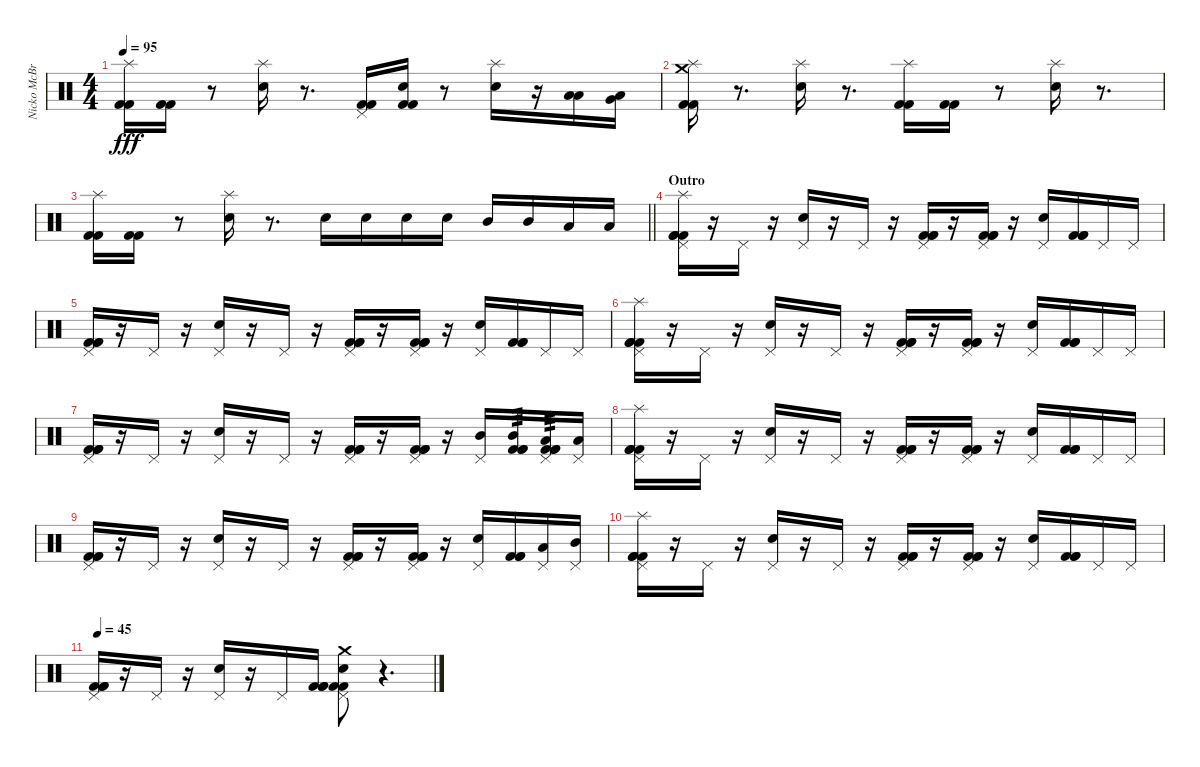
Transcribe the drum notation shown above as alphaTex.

\track ("Nicko McBrain" "Nicko McBr") {instrument percussion}
\staff {score}
\articulation defaults
\ts (4 4)
\tempo 95
\clef neutral
\ks c
("Splash (hit)" "Kick (hit) 2" "Kick (hit) 2").16{dy fff} ("Kick (hit) 2" "Kick (hit) 2").16 r.8 ("Snare (hit) 2" "Splash (hit)").16 r.8{d} ("Pedal Hi-Hat (hit)" "Kick (hit) 2" "Kick (hit) 2").16 ("Snare (hit) 2" "Kick (hit) 2" "Kick (hit) 2").16 r.8 ("Snare (hit) 2" "Splash (hit)").16 r.16 ("Low Tom (hit)" "Low Tom (hit)").16 ("Very Low Tom (hit)" "Low Tom (hit)").16 |
("Crash medium (hit)" "Splash (hit)" "Kick (hit) 2" "Kick (hit) 2").16 r.8{d} ("Snare (hit) 2" "Splash (hit)").16 r.8{d} ("Splash (hit)" "Kick (hit) 2" "Kick (hit) 2").16 ("Kick (hit) 2" "Kick (hit) 2").16 r.8 ("Snare (hit) 2" "Splash (hit)").16 r.8{d} |
\barLineRight lightlight
("Splash (hit)" "Kick (hit) 2" "Kick (hit) 2").16 ("Kick (hit) 2" "Kick (hit) 2").16 r.8 ("Snare (hit) 2" "Splash (hit)").16 r.8{d} "Snare (hit) 2".16 "Snare (hit) 2".16 "Snare (hit) 2".16 "Snare (hit) 2".16 "Mid Tom (hit)".16 "Mid Tom (hit)".16 "Low Tom (hit)".16 "Low Tom (hit)".16 |
\section ("" "Outro")
("Splash (hit)" "Pedal Hi-Hat (hit)" "Kick (hit) 2" "Kick (hit) 2" "Kick (hit) 2").16 r.16 "Pedal Hi-Hat (hit)".16 r.16 ("Snare (hit) 2" "Pedal Hi-Hat (hit)").16 r.16 "Pedal Hi-Hat (hit)".16 r.16 ("Pedal Hi-Hat (hit)" "Kick (hit) 2" "Kick (hit) 2" "Kick (hit) 2").16 r.16 ("Pedal Hi-Hat (hit)" "Kick (hit) 2" "Kick (hit) 2" "Kick (hit) 2").16 r.16 ("Snare (hit) 2" "Pedal Hi-Hat (hit)").16 ("Kick (hit) 2" "Kick (hit) 2" "Kick (hit) 2").16 "Pedal Hi-Hat (hit)".16 "Pedal Hi-Hat (hit)".16 |
("Pedal Hi-Hat (hit)" "Kick (hit) 2" "Kick (hit) 2" "Kick (hit) 2").16 r.16 "Pedal Hi-Hat (hit)".16 r.16 ("Snare (hit) 2" "Pedal Hi-Hat (hit)").16 r.16 "Pedal Hi-Hat (hit)".16 r.16 ("Pedal Hi-Hat (hit)" "Kick (hit) 2" "Kick (hit) 2" "Kick (hit) 2").16 r.16 ("Pedal Hi-Hat (hit)" "Kick (hit) 2" "Kick (hit) 2" "Kick (hit) 2").16 r.16 ("Snare (hit) 2" "Pedal Hi-Hat (hit)").16 ("Kick (hit) 2" "Kick (hit) 2" "Kick (hit) 2").16 "Pedal Hi-Hat (hit)".16 "Pedal Hi-Hat (hit)".16 |
("Splash (hit)" "Pedal Hi-Hat (hit)" "Kick (hit) 2" "Kick (hit) 2" "Kick (hit) 2").16 r.16 "Pedal Hi-Hat (hit)".16 r.16 ("Snare (hit) 2" "Pedal Hi-Hat (hit)").16 r.16 "Pedal Hi-Hat (hit)".16 r.16 ("Pedal Hi-Hat (hit)" "Kick (hit) 2" "Kick (hit) 2" "Kick (hit) 2").16 r.16 ("Pedal Hi-Hat (hit)" "Kick (hit) 2" "Kick (hit) 2" "Kick (hit) 2").16 r.16 ("Snare (hit) 2" "Pedal Hi-Hat (hit)").16 ("Kick (hit) 2" "Kick (hit) 2" "Kick (hit) 2").16 "Pedal Hi-Hat (hit)".16 "Pedal Hi-Hat (hit)".16 |
("Pedal Hi-Hat (hit)" "Kick (hit) 2" "Kick (hit) 2" "Kick (hit) 2").16 r.16 "Pedal Hi-Hat (hit)".16 r.16 ("Snare (hit) 2" "Pedal Hi-Hat (hit)").16 r.16 "Pedal Hi-Hat (hit)".16 r.16 ("Pedal Hi-Hat (hit)" "Kick (hit) 2" "Kick (hit) 2" "Kick (hit) 2").16 r.16 ("Pedal Hi-Hat (hit)" "Kick (hit) 2" "Kick (hit) 2" "Kick (hit) 2").16 r.16 ("Mid Tom (hit)" "Pedal Hi-Hat (hit)").16 ("Mid Tom (hit)" "Kick (hit) 2" "Kick (hit) 2" "Kick (hit) 2").16{tp 3} ("Low Tom (hit)" "Pedal Hi-Hat (hit)" "Kick (hit) 2" "Kick (hit) 2" "Kick (hit) 2").16{tp 3} ("Low Tom (hit)" "Pedal Hi-Hat (hit)").16 |
("Splash (hit)" "Pedal Hi-Hat (hit)" "Kick (hit) 2" "Kick (hit) 2" "Kick (hit) 2").16 r.16 "Pedal Hi-Hat (hit)".16 r.16 ("Snare (hit) 2" "Pedal Hi-Hat (hit)").16 r.16 "Pedal Hi-Hat (hit)".16 r.16 ("Pedal Hi-Hat (hit)" "Kick (hit) 2" "Kick (hit) 2" "Kick (hit) 2").16 r.16 ("Pedal Hi-Hat (hit)" "Kick (hit) 2" "Kick (hit) 2" "Kick (hit) 2").16 r.16 ("Snare (hit) 2" "Pedal Hi-Hat (hit)").16 ("Kick (hit) 2" "Kick (hit) 2" "Kick (hit) 2").16 "Pedal Hi-Hat (hit)".16 "Pedal Hi-Hat (hit)".16 |
("Pedal Hi-Hat (hit)" "Kick (hit) 2" "Kick (hit) 2" "Kick (hit) 2").16 r.16 "Pedal Hi-Hat (hit)".16 r.16 ("Snare (hit) 2" "Pedal Hi-Hat (hit)").16 r.16 "Pedal Hi-Hat (hit)".16 r.16 ("Pedal Hi-Hat (hit)" "Kick (hit) 2" "Kick (hit) 2" "Kick (hit) 2").16 r.16 ("Pedal Hi-Hat (hit)" "Kick (hit) 2" "Kick (hit) 2" "Kick (hit) 2").16 r.16 ("Snare (hit) 2" "Pedal Hi-Hat (hit)").16 ("Kick (hit) 2" "Kick (hit) 2" "Kick (hit) 2").16 ("Low Tom (hit)" "Pedal Hi-Hat (hit)").16 ("Mid Tom (hit)" "Pedal Hi-Hat (hit)").16 |
("Splash (hit)" "Pedal Hi-Hat (hit)" "Kick (hit) 2" "Kick (hit) 2" "Kick (hit) 2").16 r.16 "Pedal Hi-Hat (hit)".16 r.16 ("Snare (hit) 2" "Pedal Hi-Hat (hit)").16 r.16 "Pedal Hi-Hat (hit)".16 r.16 ("Pedal Hi-Hat (hit)" "Kick (hit) 2" "Kick (hit) 2" "Kick (hit) 2").16 r.16 ("Pedal Hi-Hat (hit)" "Kick (hit) 2" "Kick (hit) 2" "Kick (hit) 2").16 r.16 ("Snare (hit) 2" "Pedal Hi-Hat (hit)").16 ("Kick (hit) 2" "Kick (hit) 2" "Kick (hit) 2").16 "Pedal Hi-Hat (hit)".16 "Pedal Hi-Hat (hit)".16 |
\tempo 45
("Pedal Hi-Hat (hit)" "Kick (hit) 2" "Kick (hit) 2" "Kick (hit) 2").16 r.16 "Pedal Hi-Hat (hit)".16 r.16 ("Snare (hit) 2" "Pedal Hi-Hat (hit)").16 r.16 "Pedal Hi-Hat (hit)".16 ("Kick (hit) 2" "Kick (hit) 2" "Kick (hit) 2").16 ("Snare (hit) 2" "Crash medium (hit)" "Pedal Hi-Hat (hit)" "Kick (hit) 2" "Kick (hit) 2").8 r.4{d}
